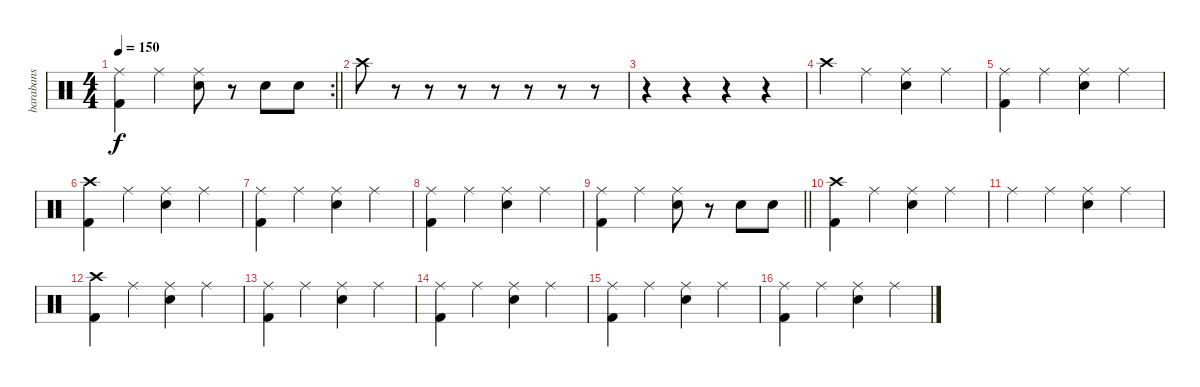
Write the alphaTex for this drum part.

\track ("barabans" "barabans") {instrument percussion}
\staff {score}
\articulation defaults
\rc 2
\ts (4 4)
\tempo 150
\clef neutral
\barLineRight lightlight
\ks c
("Ride (middle)" "Kick (hit) 2").4{dy f} "Ride (middle)".4 ("Ride (middle)" "Snare (hit) 2").8 r.8 "Snare (hit) 2".8 "Snare (hit) 2".8 |
"Crash high (hit)".8 r.8 r.8 r.8 r.8 r.8 r.8 r.8 |
r.4 r.4 r.4 r.4 |
"Crash high (hit)".4 "Ride (middle)".4 ("Ride (middle)" "Snare (hit) 2").4 "Ride (middle)".4 |
("Ride (middle)" "Kick (hit) 2").4 "Ride (middle)".4 ("Ride (middle)" "Snare (hit) 2").4 "Ride (middle)".4 |
("Crash high (hit)" "Kick (hit) 2").4 "Ride (middle)".4 ("Ride (middle)" "Snare (hit) 2").4 "Ride (middle)".4 |
("Ride (middle)" "Kick (hit) 2").4 "Ride (middle)".4 ("Ride (middle)" "Snare (hit) 2").4 "Ride (middle)".4 |
("Ride (middle)" "Kick (hit) 2").4 "Ride (middle)".4 ("Ride (middle)" "Snare (hit) 2").4 "Ride (middle)".4 |
\barLineRight lightlight
("Ride (middle)" "Kick (hit) 2").4 "Ride (middle)".4 ("Ride (middle)" "Snare (hit) 2").8 r.8 "Snare (hit) 2".8 "Snare (hit) 2".8 |
("Crash high (hit)" "Kick (hit) 2").4 "Ride (middle)".4 ("Ride (middle)" "Snare (hit) 2").4 "Ride (middle)".4 |
"Ride (middle)".4 "Ride (middle)".4 ("Ride (middle)" "Snare (hit) 2").4 "Ride (middle)".4 |
("Crash high (hit)" "Kick (hit) 2").4 "Ride (middle)".4 ("Ride (middle)" "Snare (hit) 2").4 "Ride (middle)".4 |
("Ride (middle)" "Kick (hit) 2").4 "Ride (middle)".4 ("Ride (middle)" "Snare (hit) 2").4 "Ride (middle)".4 |
("Ride (middle)" "Kick (hit) 2").4 "Ride (middle)".4 ("Ride (middle)" "Snare (hit) 2").4 "Ride (middle)".4 |
("Ride (middle)" "Kick (hit) 2").4 "Ride (middle)".4 ("Ride (middle)" "Snare (hit) 2").4 "Ride (middle)".4 |
("Ride (middle)" "Kick (hit) 2").4 "Ride (middle)".4 ("Ride (middle)" "Snare (hit) 2").4 "Ride (middle)".4
